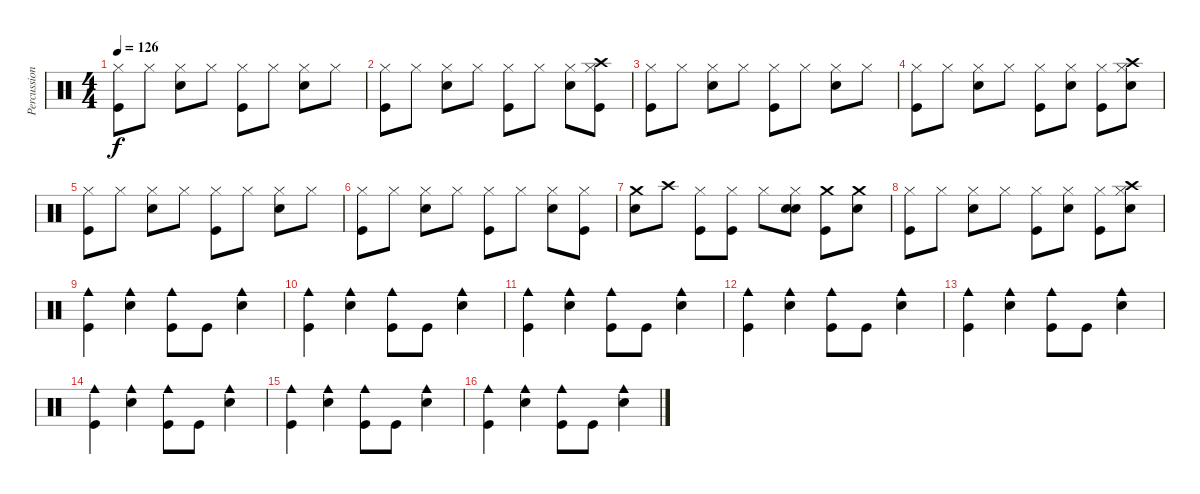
\track ("Percussion" "Percussion") {instrument percussion}
\staff {score}
\articulation defaults
\ts (4 4)
\tempo 126
\clef neutral
\ks c
("Hi-Hat (closed)" "Kick (hit)").8{dy f} "Hi-Hat (closed)".8 ("Hi-Hat (closed)" "Electric Snare (hit)").8 "Hi-Hat (closed)".8 ("Hi-Hat (closed)" "Kick (hit)").8 "Hi-Hat (closed)".8 ("Hi-Hat (closed)" "Electric Snare (hit)").8 "Hi-Hat (closed)".8 |
("Hi-Hat (closed)" "Kick (hit)").8 "Hi-Hat (closed)".8 ("Hi-Hat (closed)" "Electric Snare (hit)").8 "Hi-Hat (closed)".8 ("Hi-Hat (closed)" "Kick (hit)").8 "Hi-Hat (closed)".8 ("Hi-Hat (closed)" "Electric Snare (hit)").8 ("Hi-Hat (closed)" "Crash high (hit)" "Kick (hit)").8 |
("Hi-Hat (closed)" "Kick (hit)").8 "Hi-Hat (closed)".8 ("Hi-Hat (closed)" "Electric Snare (hit)").8 "Hi-Hat (closed)".8 ("Hi-Hat (closed)" "Kick (hit)").8 "Hi-Hat (closed)".8 ("Hi-Hat (closed)" "Electric Snare (hit)").8 "Hi-Hat (closed)".8 |
("Hi-Hat (closed)" "Kick (hit)").8 "Hi-Hat (closed)".8 ("Hi-Hat (closed)" "Electric Snare (hit)").8 "Hi-Hat (closed)".8 ("Hi-Hat (closed)" "Kick (hit)").8 ("Hi-Hat (closed)" "Electric Snare (hit)").8 ("Hi-Hat (closed)" "Kick (hit)").8 ("Hi-Hat (closed)" "Crash high (hit)" "Electric Snare (hit)").8 |
("Hi-Hat (closed)" "Kick (hit)").8 "Hi-Hat (closed)".8 ("Hi-Hat (closed)" "Electric Snare (hit)").8 "Hi-Hat (closed)".8 ("Hi-Hat (closed)" "Kick (hit)").8 "Hi-Hat (closed)".8 ("Hi-Hat (closed)" "Electric Snare (hit)").8 "Hi-Hat (closed)".8 |
("Hi-Hat (closed)" "Kick (hit)").8 "Hi-Hat (closed)".8 ("Hi-Hat (closed)" "Electric Snare (hit)").8 "Hi-Hat (closed)".8 ("Hi-Hat (closed)" "Kick (hit)").8 "Hi-Hat (closed)".8 ("Hi-Hat (closed)" "Electric Snare (hit)").8 ("Hi-Hat (closed)" "Kick (hit)").8 |
("Crash medium (hit)" "Electric Snare (hit)").8 "Crash high (hit)".8 ("Hi-Hat (closed)" "Kick (hit)").8 ("Hi-Hat (closed)" "Kick (hit)").8 "Hi-Hat (closed)".8 ("Hi-Hat (closed)" "Electric Snare (hit)" "Electric Snare (hit)").8 ("Crash medium (hit)" "Kick (hit)").8 ("Crash medium (hit)" "Electric Snare (hit)").8 |
("Hi-Hat (closed)" "Kick (hit)").8 "Hi-Hat (closed)".8 ("Hi-Hat (closed)" "Electric Snare (hit)").8 "Hi-Hat (closed)".8 ("Hi-Hat (closed)" "Kick (hit)").8 ("Hi-Hat (closed)" "Electric Snare (hit)").8 ("Hi-Hat (closed)" "Kick (hit)").8 ("Hi-Hat (closed)" "Crash high (hit)" "Electric Snare (hit)").8 |
("Cowbell medium (hit)" "Kick (hit)").4 ("Cowbell medium (hit)" "Electric Snare (hit)").4 ("Cowbell medium (hit)" "Kick (hit)").8 "Kick (hit)".8 ("Cowbell medium (hit)" "Electric Snare (hit)").4 |
("Cowbell medium (hit)" "Kick (hit)").4 ("Cowbell medium (hit)" "Electric Snare (hit)").4 ("Cowbell medium (hit)" "Kick (hit)").8 "Kick (hit)".8 ("Cowbell medium (hit)" "Electric Snare (hit)").4 |
("Cowbell medium (hit)" "Kick (hit)").4 ("Cowbell medium (hit)" "Electric Snare (hit)").4 ("Cowbell medium (hit)" "Kick (hit)").8 "Kick (hit)".8 ("Cowbell medium (hit)" "Electric Snare (hit)").4 |
("Cowbell medium (hit)" "Kick (hit)").4 ("Cowbell medium (hit)" "Electric Snare (hit)").4 ("Cowbell medium (hit)" "Kick (hit)").8 "Kick (hit)".8 ("Cowbell medium (hit)" "Electric Snare (hit)").4 |
("Cowbell medium (hit)" "Kick (hit)").4 ("Cowbell medium (hit)" "Electric Snare (hit)").4 ("Cowbell medium (hit)" "Kick (hit)").8 "Kick (hit)".8 ("Cowbell medium (hit)" "Electric Snare (hit)").4 |
("Cowbell medium (hit)" "Kick (hit)").4 ("Cowbell medium (hit)" "Electric Snare (hit)").4 ("Cowbell medium (hit)" "Kick (hit)").8 "Kick (hit)".8 ("Cowbell medium (hit)" "Electric Snare (hit)").4 |
("Cowbell medium (hit)" "Kick (hit)").4 ("Cowbell medium (hit)" "Electric Snare (hit)").4 ("Cowbell medium (hit)" "Kick (hit)").8 "Kick (hit)".8 ("Cowbell medium (hit)" "Electric Snare (hit)").4 |
("Cowbell medium (hit)" "Kick (hit)").4 ("Cowbell medium (hit)" "Electric Snare (hit)").4 ("Cowbell medium (hit)" "Kick (hit)").8 "Kick (hit)".8 ("Cowbell medium (hit)" "Electric Snare (hit)").4
